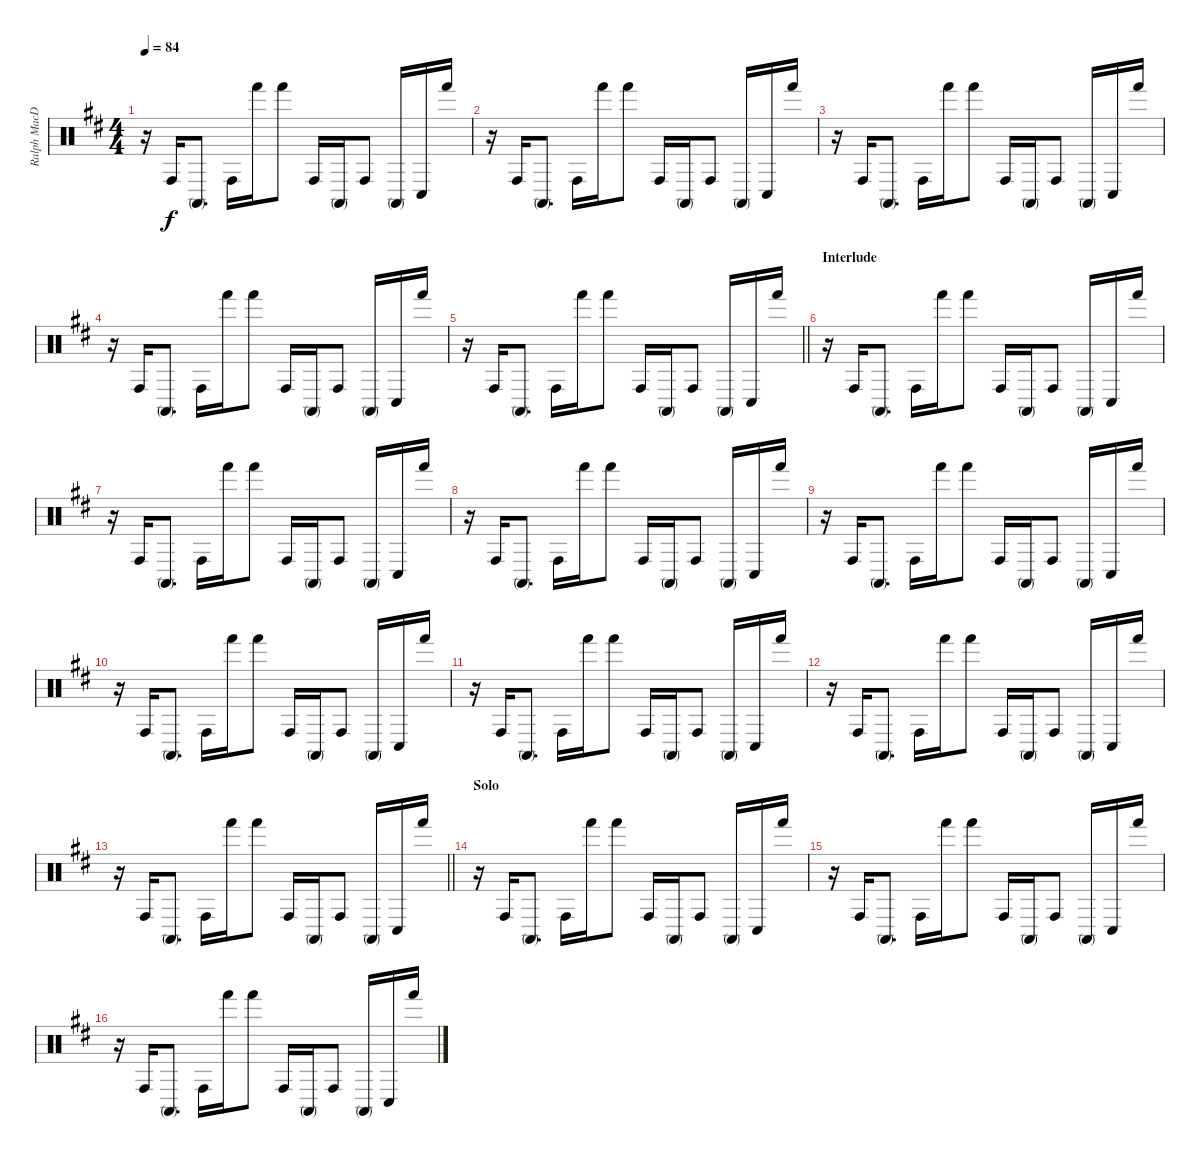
\track ("Ralph MacDonald" "Ralph MacD") {instrument percussion}
\staff {score}
\articulation defaults
\ts (4 4)
\tempo 84
\clef neutral
\ks d
r.16{dy f} "Conga high (hit)".16 "Conga high (mute)".8{d} "Conga high (hit)".16 "Hand (hit)".16 "Hand (hit)".8 "Conga high (hit)".16 "Conga high (mute)".16 "Conga high (hit)".8 "Conga high (mute)".16 "Conga low (hit)".16 "Hand (hit)".16 |
r.16 "Conga high (hit)".16 "Conga high (mute)".8{d} "Conga high (hit)".16 "Hand (hit)".16 "Hand (hit)".8 "Conga high (hit)".16 "Conga high (mute)".16 "Conga high (hit)".8 "Conga high (mute)".16 "Conga low (hit)".16 "Hand (hit)".16 |
r.16 "Conga high (hit)".16 "Conga high (mute)".8{d} "Conga high (hit)".16 "Hand (hit)".16 "Hand (hit)".8 "Conga high (hit)".16 "Conga high (mute)".16 "Conga high (hit)".8 "Conga high (mute)".16 "Conga low (hit)".16 "Hand (hit)".16 |
r.16 "Conga high (hit)".16 "Conga high (mute)".8{d} "Conga high (hit)".16 "Hand (hit)".16 "Hand (hit)".8 "Conga high (hit)".16 "Conga high (mute)".16 "Conga high (hit)".8 "Conga high (mute)".16 "Conga low (hit)".16 "Hand (hit)".16 |
\barLineRight lightlight
r.16 "Conga high (hit)".16 "Conga high (mute)".8{d} "Conga high (hit)".16 "Hand (hit)".16 "Hand (hit)".8 "Conga high (hit)".16 "Conga high (mute)".16 "Conga high (hit)".8 "Conga high (mute)".16 "Conga low (hit)".16 "Hand (hit)".16 |
\section ("" "Interlude")
r.16 "Conga high (hit)".16 "Conga high (mute)".8{d} "Conga high (hit)".16 "Hand (hit)".16 "Hand (hit)".8 "Conga high (hit)".16 "Conga high (mute)".16 "Conga high (hit)".8 "Conga high (mute)".16 "Conga low (hit)".16 "Hand (hit)".16 |
r.16 "Conga high (hit)".16 "Conga high (mute)".8{d} "Conga high (hit)".16 "Hand (hit)".16 "Hand (hit)".8 "Conga high (hit)".16 "Conga high (mute)".16 "Conga high (hit)".8 "Conga high (mute)".16 "Conga low (hit)".16 "Hand (hit)".16 |
r.16 "Conga high (hit)".16 "Conga high (mute)".8{d} "Conga high (hit)".16 "Hand (hit)".16 "Hand (hit)".8 "Conga high (hit)".16 "Conga high (mute)".16 "Conga high (hit)".8 "Conga high (mute)".16 "Conga low (hit)".16 "Hand (hit)".16 |
r.16 "Conga high (hit)".16 "Conga high (mute)".8{d} "Conga high (hit)".16 "Hand (hit)".16 "Hand (hit)".8 "Conga high (hit)".16 "Conga high (mute)".16 "Conga high (hit)".8 "Conga high (mute)".16 "Conga low (hit)".16 "Hand (hit)".16 |
r.16 "Conga high (hit)".16 "Conga high (mute)".8{d} "Conga high (hit)".16 "Hand (hit)".16 "Hand (hit)".8 "Conga high (hit)".16 "Conga high (mute)".16 "Conga high (hit)".8 "Conga high (mute)".16 "Conga low (hit)".16 "Hand (hit)".16 |
r.16 "Conga high (hit)".16 "Conga high (mute)".8{d} "Conga high (hit)".16 "Hand (hit)".16 "Hand (hit)".8 "Conga high (hit)".16 "Conga high (mute)".16 "Conga high (hit)".8 "Conga high (mute)".16 "Conga low (hit)".16 "Hand (hit)".16 |
r.16 "Conga high (hit)".16 "Conga high (mute)".8{d} "Conga high (hit)".16 "Hand (hit)".16 "Hand (hit)".8 "Conga high (hit)".16 "Conga high (mute)".16 "Conga high (hit)".8 "Conga high (mute)".16 "Conga low (hit)".16 "Hand (hit)".16 |
\barLineRight lightlight
r.16 "Conga high (hit)".16 "Conga high (mute)".8{d} "Conga high (hit)".16 "Hand (hit)".16 "Hand (hit)".8 "Conga high (hit)".16 "Conga high (mute)".16 "Conga high (hit)".8 "Conga high (mute)".16 "Conga low (hit)".16 "Hand (hit)".16 |
\section ("" "Solo")
r.16 "Conga high (hit)".16 "Conga high (mute)".8{d} "Conga high (hit)".16 "Hand (hit)".16 "Hand (hit)".8 "Conga high (hit)".16 "Conga high (mute)".16 "Conga high (hit)".8 "Conga high (mute)".16 "Conga low (hit)".16 "Hand (hit)".16 |
r.16 "Conga high (hit)".16 "Conga high (mute)".8{d} "Conga high (hit)".16 "Hand (hit)".16 "Hand (hit)".8 "Conga high (hit)".16 "Conga high (mute)".16 "Conga high (hit)".8 "Conga high (mute)".16 "Conga low (hit)".16 "Hand (hit)".16 |
r.16 "Conga high (hit)".16 "Conga high (mute)".8{d} "Conga high (hit)".16 "Hand (hit)".16 "Hand (hit)".8 "Conga high (hit)".16 "Conga high (mute)".16 "Conga high (hit)".8 "Conga high (mute)".16 "Conga low (hit)".16 "Hand (hit)".16
